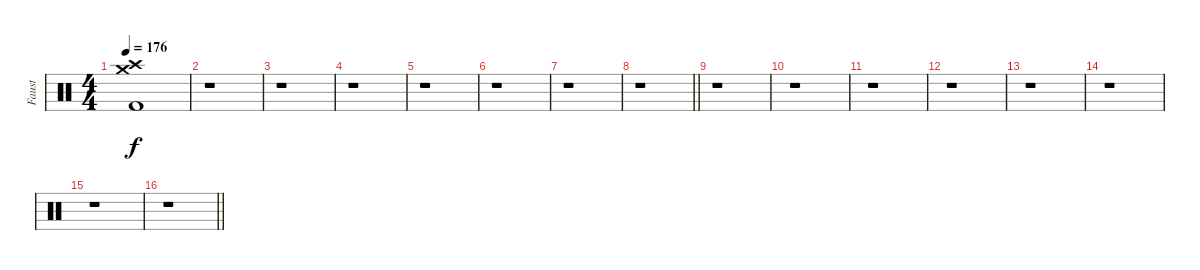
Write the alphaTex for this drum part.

\track ("Faust" "Faust") {instrument percussion}
\staff {score}
\articulation defaults
\ts (4 4)
\section ("" "")
\tempo 176
\clef neutral
\ks c
("Crash medium (hit)" "Crash high (hit)" "Kick (hit) 2").1{dy f} |
r.1 |
r.1 |
r.1 |
r.1 |
r.1 |
r.1 |
\barLineRight lightlight
r.1 |
\section ("" "")
r.1 |
r.1 |
r.1 |
r.1 |
r.1 |
r.1 |
r.1 |
\barLineRight lightlight
r.1
